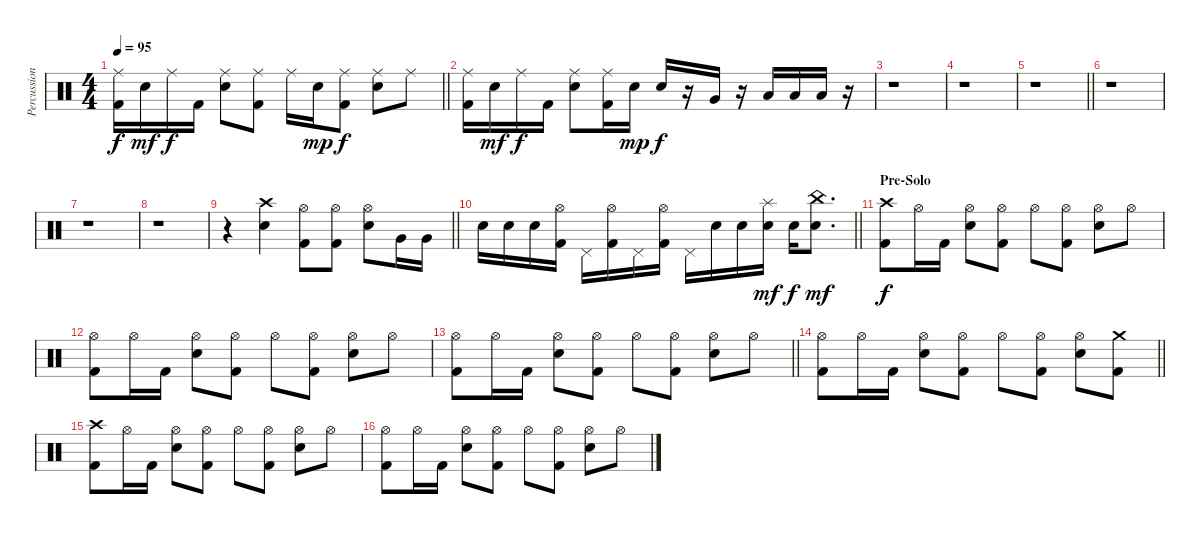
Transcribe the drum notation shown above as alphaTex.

\track ("Percussion" "Percussion") {instrument percussion}
\staff {score}
\articulation defaults
\ts (4 4)
\tempo 95
\clef neutral
\barLineRight lightlight
\ks c
("Ride (middle)" "Kick (hit) 2").16{dy f} "Electric Snare (hit)".16{dy mf} "Ride (middle)".16{dy f} "Kick (hit) 2".16 ("Ride (middle)" "Electric Snare (hit)").8 ("Ride (middle)" "Kick (hit) 2").8 "Ride (middle)".16 "Electric Snare (hit)".16{dy mp} ("Ride (middle)" "Kick (hit) 2").8{dy f} ("Ride (middle)" "Electric Snare (hit)").8 "Ride (middle)".8 |
("Ride (middle)" "Kick (hit) 2").16 "Electric Snare (hit)".16{dy mf} "Ride (middle)".16{dy f} "Kick (hit) 2".16 ("Ride (middle)" "Electric Snare (hit)").8 ("Ride (middle)" "Kick (hit) 2").16 "Electric Snare (hit)".16{dy mp} "Electric Snare (hit)".16{dy f} r.16 "Very Low Tom (hit)".16 r.16 "Low Floor Tom (hit)".16 "Low Floor Tom (hit)".16 "Low Floor Tom (hit)".16 r.16 |
r.1 |
r.1 |
\barLineRight lightlight
r.1 |
r.1 |
r.1 |
r.1 |
\barLineRight lightlight
r.4 ("Crash high (hit)" "Electric Snare (hit)").4 ("Hi-Hat (open)" "Kick (hit) 2").8 ("Hi-Hat (open)" "Kick (hit) 2").8 ("Hi-Hat (open)" "Electric Snare (hit)").8 "Very Low Tom (hit)".16 "Very Low Tom (hit)".16 |
\barLineRight lightlight "Electric Snare (hit)".16 "Electric Snare (hit)".16 "Electric Snare (hit)".16
("Hi-Hat (open)" "Kick (hit) 2").16 "Pedal Hi-Hat (hit)".16 ("Hi-Hat (open)" "Kick (hit) 2").16 "Pedal Hi-Hat (hit)".16 ("Hi-Hat (open)" "Kick (hit) 2").16 "Pedal Hi-Hat (hit)".16 "Electric Snare (hit)".16 "Electric Snare (hit)".16 ("Splash (hit)" "Electric Snare (hit)").16{dy mf} "Electric Snare (hit)".16{dy f} ("China (hit)" "Electric Snare (hit)").8{d dy mf} |
\section ("" "Pre-Solo")
("Crash high (hit)" "Kick (hit) 2").8{dy f} "Hi-Hat (open)".16 "Kick (hit) 2".16 ("Hi-Hat (open)" "Electric Snare (hit)").8 ("Hi-Hat (open)" "Kick (hit) 2").8 "Hi-Hat (open)".8 ("Hi-Hat (open)" "Kick (hit) 2").8 ("Hi-Hat (open)" "Electric Snare (hit)").8 "Hi-Hat (open)".8 |
("Hi-Hat (open)" "Kick (hit) 2").8 "Hi-Hat (open)".16 "Kick (hit) 2".16 ("Hi-Hat (open)" "Electric Snare (hit)").8 ("Hi-Hat (open)" "Kick (hit) 2").8 "Hi-Hat (open)".8 ("Hi-Hat (open)" "Kick (hit) 2").8 ("Hi-Hat (open)" "Electric Snare (hit)").8 "Hi-Hat (open)".8 |
\barLineRight lightlight
("Hi-Hat (open)" "Kick (hit) 2").8 "Hi-Hat (open)".16 "Kick (hit) 2".16 ("Hi-Hat (open)" "Electric Snare (hit)").8 ("Hi-Hat (open)" "Kick (hit) 2").8 "Hi-Hat (open)".8 ("Hi-Hat (open)" "Kick (hit) 2").8 ("Hi-Hat (open)" "Electric Snare (hit)").8 "Hi-Hat (open)".8 |
\barLineRight lightlight
("Hi-Hat (open)" "Kick (hit) 2").8 "Hi-Hat (open)".16 "Kick (hit) 2".16 ("Hi-Hat (open)" "Electric Snare (hit)").8 ("Hi-Hat (open)" "Kick (hit) 2").8 "Hi-Hat (open)".8 ("Hi-Hat (open)" "Kick (hit) 2").8 ("Hi-Hat (open)" "Electric Snare (hit)").8 ("Crash medium (hit)" "Kick (hit) 2").8 |
("Crash high (hit)" "Kick (hit) 2").8 "Hi-Hat (open)".16 "Kick (hit) 2".16 ("Hi-Hat (open)" "Electric Snare (hit)").8 ("Hi-Hat (open)" "Kick (hit) 2").8 "Hi-Hat (open)".8 ("Hi-Hat (open)" "Kick (hit) 2").8 ("Hi-Hat (open)" "Electric Snare (hit)").8 "Hi-Hat (open)".8 |
("Hi-Hat (open)" "Kick (hit) 2").8 "Hi-Hat (open)".16 "Kick (hit) 2".16 ("Hi-Hat (open)" "Electric Snare (hit)").8 ("Hi-Hat (open)" "Kick (hit) 2").8 "Hi-Hat (open)".8 ("Hi-Hat (open)" "Kick (hit) 2").8 ("Hi-Hat (open)" "Electric Snare (hit)").8 "Hi-Hat (open)".8
